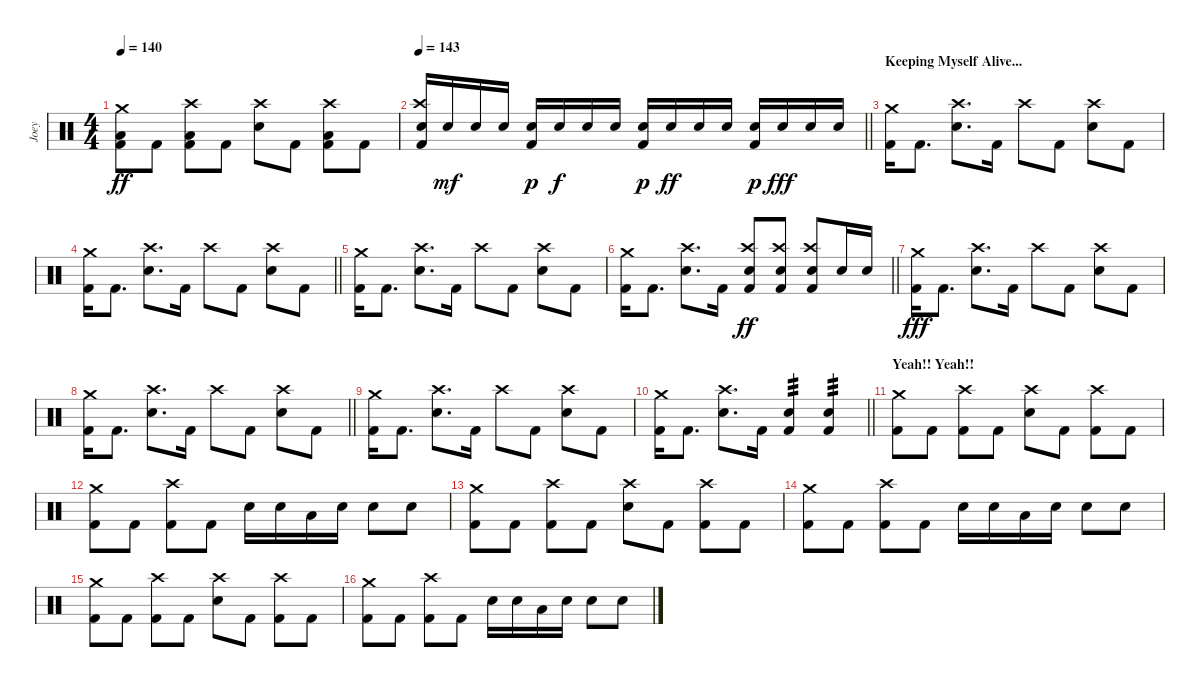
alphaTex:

\track ("Joey" "Joey") {instrument percussion}
\staff {score}
\articulation defaults
\ts (4 4)
\tempo 140
\clef neutral
\ks c
("Crash medium (hit)" "Low Tom (hit)" "Kick (hit) 2").8{dy ff} "Kick (hit) 2".8 ("Crash high (hit)" "Low Tom (hit)" "Kick (hit) 2").8 "Kick (hit) 2".8 ("Crash high (hit)" "Electric Snare (hit)").8 "Kick (hit) 2".8 ("Crash high (hit)" "Low Tom (hit)" "Kick (hit) 2").8 "Kick (hit) 2".8 |
\tempo 143
\barLineRight lightlight
("Crash high (hit)" "Electric Snare (hit)" "Kick (hit) 2").16 "Electric Snare (hit)".16{dy mf} "Electric Snare (hit)".16 "Electric Snare (hit)".16 ("Electric Snare (hit)" "Kick (hit) 2").16{dy p} "Electric Snare (hit)".16{dy f} "Electric Snare (hit)".16 "Electric Snare (hit)".16 ("Electric Snare (hit)" "Kick (hit) 2").16{dy p} "Electric Snare (hit)".16{dy ff} "Electric Snare (hit)".16 "Electric Snare (hit)".16 ("Electric Snare (hit)" "Kick (hit) 2").16{dy p} "Electric Snare (hit)".16{dy fff} "Electric Snare (hit)".16 "Electric Snare (hit)".16 |
\section ("" "Keeping Myself Alive...")
("Crash medium (hit)" "Kick (hit) 2").16 "Kick (hit) 2".8{d} ("Crash high (hit)" "Electric Snare (hit)").8{d} "Kick (hit) 2".16 "Crash high (hit)".8 "Kick (hit) 2".8 ("Crash high (hit)" "Electric Snare (hit)").8 "Kick (hit) 2".8 |
\barLineRight lightlight
("Crash medium (hit)" "Kick (hit) 2").16 "Kick (hit) 2".8{d} ("Crash high (hit)" "Electric Snare (hit)").8{d} "Kick (hit) 2".16 "Crash high (hit)".8 "Kick (hit) 2".8 ("Crash high (hit)" "Electric Snare (hit)").8 "Kick (hit) 2".8 |
("Crash medium (hit)" "Kick (hit) 2").16 "Kick (hit) 2".8{d} ("Crash high (hit)" "Electric Snare (hit)").8{d} "Kick (hit) 2".16 "Crash high (hit)".8 "Kick (hit) 2".8 ("Crash high (hit)" "Electric Snare (hit)").8 "Kick (hit) 2".8 |
\barLineRight lightlight
("Crash medium (hit)" "Kick (hit) 2").16 "Kick (hit) 2".8{d} ("Crash high (hit)" "Electric Snare (hit)").8{d} "Kick (hit) 2".16 ("Crash high (hit)" "Electric Snare (hit)" "Kick (hit) 2").8{dy ff} ("Crash high (hit)" "Electric Snare (hit)" "Kick (hit) 2").8 ("Crash high (hit)" "Electric Snare (hit)" "Kick (hit) 2").8 "Electric Snare (hit)".16 "Electric Snare (hit)".16 |
("Crash medium (hit)" "Kick (hit) 2").16{dy fff} "Kick (hit) 2".8{d} ("Crash high (hit)" "Electric Snare (hit)").8{d} "Kick (hit) 2".16 "Crash high (hit)".8 "Kick (hit) 2".8 ("Crash high (hit)" "Electric Snare (hit)").8 "Kick (hit) 2".8 |
\barLineRight lightlight
("Crash medium (hit)" "Kick (hit) 2").16 "Kick (hit) 2".8{d} ("Crash high (hit)" "Electric Snare (hit)").8{d} "Kick (hit) 2".16 "Crash high (hit)".8 "Kick (hit) 2".8 ("Crash high (hit)" "Electric Snare (hit)").8 "Kick (hit) 2".8 |
("Crash medium (hit)" "Kick (hit) 2").16 "Kick (hit) 2".8{d} ("Crash high (hit)" "Electric Snare (hit)").8{d} "Kick (hit) 2".16 "Crash high (hit)".8 "Kick (hit) 2".8 ("Crash high (hit)" "Electric Snare (hit)").8 "Kick (hit) 2".8 |
\barLineRight lightlight
("Crash medium (hit)" "Kick (hit) 2").16 "Kick (hit) 2".8{d} ("Crash high (hit)" "Electric Snare (hit)").8{d} "Kick (hit) 2".16 ("Electric Snare (hit)" "Kick (hit) 2").4{tp 3} ("Electric Snare (hit)" "Kick (hit) 2").4{tp 3} |
\section ("" "Yeah!! Yeah!!")
("Crash medium (hit)" "Kick (hit) 2").8 "Kick (hit) 2".8 ("Crash high (hit)" "Kick (hit) 2").8 "Kick (hit) 2".8 ("Crash high (hit)" "Electric Snare (hit)").8 "Kick (hit) 2".8 ("Crash high (hit)" "Kick (hit) 2").8 "Kick (hit) 2".8 |
("Crash medium (hit)" "Kick (hit) 2").8 "Kick (hit) 2".8 ("Crash high (hit)" "Kick (hit) 2").8 "Kick (hit) 2".8 "Electric Snare (hit)".16 "Electric Snare (hit)".16 "Low Tom (hit)".16 "Electric Snare (hit)".16 "Electric Snare (hit)".8 "Electric Snare (hit)".8 |
("Crash medium (hit)" "Kick (hit) 2").8 "Kick (hit) 2".8 ("Crash high (hit)" "Kick (hit) 2").8 "Kick (hit) 2".8 ("Crash high (hit)" "Electric Snare (hit)").8 "Kick (hit) 2".8 ("Crash high (hit)" "Kick (hit) 2").8 "Kick (hit) 2".8 |
("Crash medium (hit)" "Kick (hit) 2").8 "Kick (hit) 2".8 ("Crash high (hit)" "Kick (hit) 2").8 "Kick (hit) 2".8 "Electric Snare (hit)".16 "Electric Snare (hit)".16 "Low Tom (hit)".16 "Electric Snare (hit)".16 "Electric Snare (hit)".8 "Electric Snare (hit)".8 |
("Crash medium (hit)" "Kick (hit) 2").8 "Kick (hit) 2".8 ("Crash high (hit)" "Kick (hit) 2").8 "Kick (hit) 2".8 ("Crash high (hit)" "Electric Snare (hit)").8 "Kick (hit) 2".8 ("Crash high (hit)" "Kick (hit) 2").8 "Kick (hit) 2".8 |
("Crash medium (hit)" "Kick (hit) 2").8 "Kick (hit) 2".8 ("Crash high (hit)" "Kick (hit) 2").8 "Kick (hit) 2".8 "Electric Snare (hit)".16 "Electric Snare (hit)".16 "Low Tom (hit)".16 "Electric Snare (hit)".16 "Electric Snare (hit)".8 "Electric Snare (hit)".8
